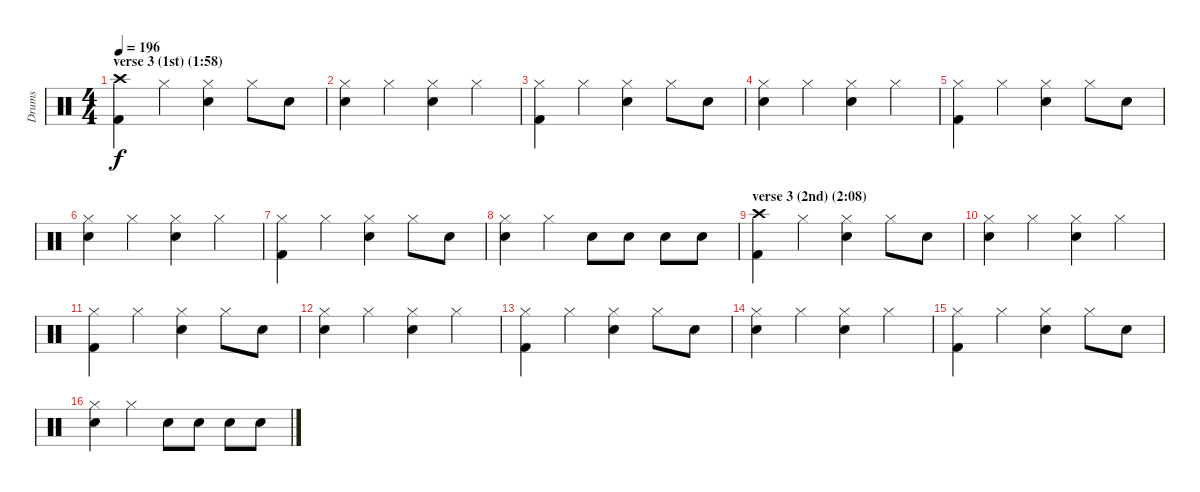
\track ("Drums" "Drums") {instrument percussion}
\staff {score}
\articulation defaults
\ts (4 4)
\section ("" "verse 3 (1st) (1:58)")
\tempo 196
\clef neutral
\ks c
("Crash high (hit)" "Kick (hit) 2").4{dy f} "Hi-Hat (closed)".4 ("Hi-Hat (closed)" "Snare (hit) 2").4 "Hi-Hat (closed)".8 "Snare (hit) 2".8 |
("Hi-Hat (closed)" "Snare (hit) 2").4 "Hi-Hat (closed)".4 ("Hi-Hat (closed)" "Snare (hit) 2").4 "Hi-Hat (closed)".4 |
("Hi-Hat (closed)" "Kick (hit) 2").4 "Hi-Hat (closed)".4 ("Hi-Hat (closed)" "Snare (hit) 2").4 "Hi-Hat (closed)".8 "Snare (hit) 2".8 |
("Hi-Hat (closed)" "Snare (hit) 2").4 "Hi-Hat (closed)".4 ("Hi-Hat (closed)" "Snare (hit) 2").4 "Hi-Hat (closed)".4 |
("Hi-Hat (closed)" "Kick (hit) 2").4 "Hi-Hat (closed)".4 ("Hi-Hat (closed)" "Snare (hit) 2").4 "Hi-Hat (closed)".8 "Snare (hit) 2".8 |
("Hi-Hat (closed)" "Snare (hit) 2").4 "Hi-Hat (closed)".4 ("Hi-Hat (closed)" "Snare (hit) 2").4 "Hi-Hat (closed)".4 |
("Hi-Hat (closed)" "Kick (hit) 2").4 "Hi-Hat (closed)".4 ("Hi-Hat (closed)" "Snare (hit) 2").4 "Hi-Hat (closed)".8 "Snare (hit) 2".8 |
("Hi-Hat (closed)" "Snare (hit) 2").4 "Hi-Hat (closed)".4 "Snare (hit) 2".8 "Snare (hit) 2".8 "Snare (hit) 2".8 "Snare (hit) 2".8 |
\section ("" "verse 3 (2nd) (2:08)")
("Crash high (hit)" "Kick (hit) 2").4 "Hi-Hat (closed)".4 ("Hi-Hat (closed)" "Snare (hit) 2").4 "Hi-Hat (closed)".8 "Snare (hit) 2".8 |
("Hi-Hat (closed)" "Snare (hit) 2").4 "Hi-Hat (closed)".4 ("Hi-Hat (closed)" "Snare (hit) 2").4 "Hi-Hat (closed)".4 |
("Hi-Hat (closed)" "Kick (hit) 2").4 "Hi-Hat (closed)".4 ("Hi-Hat (closed)" "Snare (hit) 2").4 "Hi-Hat (closed)".8 "Snare (hit) 2".8 |
("Hi-Hat (closed)" "Snare (hit) 2").4 "Hi-Hat (closed)".4 ("Hi-Hat (closed)" "Snare (hit) 2").4 "Hi-Hat (closed)".4 |
("Hi-Hat (closed)" "Kick (hit) 2").4 "Hi-Hat (closed)".4 ("Hi-Hat (closed)" "Snare (hit) 2").4 "Hi-Hat (closed)".8 "Snare (hit) 2".8 |
("Hi-Hat (closed)" "Snare (hit) 2").4 "Hi-Hat (closed)".4 ("Hi-Hat (closed)" "Snare (hit) 2").4 "Hi-Hat (closed)".4 |
("Hi-Hat (closed)" "Kick (hit) 2").4 "Hi-Hat (closed)".4 ("Hi-Hat (closed)" "Snare (hit) 2").4 "Hi-Hat (closed)".8 "Snare (hit) 2".8 |
("Hi-Hat (closed)" "Snare (hit) 2").4 "Hi-Hat (closed)".4 "Snare (hit) 2".8 "Snare (hit) 2".8 "Snare (hit) 2".8 "Snare (hit) 2".8
